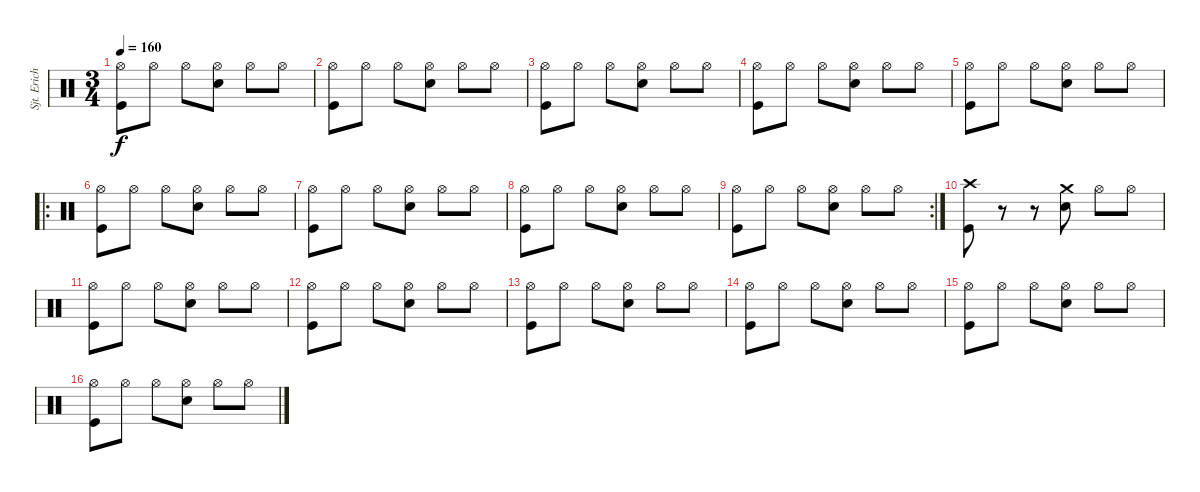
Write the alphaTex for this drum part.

\track ("Sjt. Erichsen" "Sjt. Erich") {instrument percussion}
\staff {score}
\articulation defaults
\ts (3 4)
\tempo 160
\clef neutral
\ks c
("Hi-Hat (open)" "Kick (hit)").8{dy f} "Hi-Hat (open)".8 "Hi-Hat (open)".8 ("Hi-Hat (open)" "Electric Snare (hit)").8 "Hi-Hat (open)".8 "Hi-Hat (open)".8 |
("Hi-Hat (open)" "Kick (hit)").8 "Hi-Hat (open)".8 "Hi-Hat (open)".8 ("Hi-Hat (open)" "Electric Snare (hit)").8 "Hi-Hat (open)".8 "Hi-Hat (open)".8 |
("Hi-Hat (open)" "Kick (hit)").8 "Hi-Hat (open)".8 "Hi-Hat (open)".8 ("Hi-Hat (open)" "Electric Snare (hit)").8 "Hi-Hat (open)".8 "Hi-Hat (open)".8 |
("Hi-Hat (open)" "Kick (hit)").8 "Hi-Hat (open)".8 "Hi-Hat (open)".8 ("Hi-Hat (open)" "Electric Snare (hit)").8 "Hi-Hat (open)".8 "Hi-Hat (open)".8 |
("Hi-Hat (open)" "Kick (hit)").8 "Hi-Hat (open)".8 "Hi-Hat (open)".8 ("Hi-Hat (open)" "Electric Snare (hit)").8 "Hi-Hat (open)".8 "Hi-Hat (open)".8 |
\ro
("Hi-Hat (open)" "Kick (hit)").8 "Hi-Hat (open)".8 "Hi-Hat (open)".8 ("Hi-Hat (open)" "Electric Snare (hit)").8 "Hi-Hat (open)".8 "Hi-Hat (open)".8 |
("Hi-Hat (open)" "Kick (hit)").8 "Hi-Hat (open)".8 "Hi-Hat (open)".8 ("Hi-Hat (open)" "Electric Snare (hit)").8 "Hi-Hat (open)".8 "Hi-Hat (open)".8 |
("Hi-Hat (open)" "Kick (hit)").8 "Hi-Hat (open)".8 "Hi-Hat (open)".8 ("Hi-Hat (open)" "Electric Snare (hit)").8 "Hi-Hat (open)".8 "Hi-Hat (open)".8 |
\rc 2
("Hi-Hat (open)" "Kick (hit)").8 "Hi-Hat (open)".8 "Hi-Hat (open)".8 ("Hi-Hat (open)" "Electric Snare (hit)").8 "Hi-Hat (open)".8 "Hi-Hat (open)".8 |
("Crash high (hit)" "Kick (hit)").8 r.8 r.8 ("Crash medium (hit)" "Electric Snare (hit)").8 "Hi-Hat (open)".8 "Hi-Hat (open)".8 |
("Hi-Hat (open)" "Kick (hit)").8 "Hi-Hat (open)".8 "Hi-Hat (open)".8 ("Hi-Hat (open)" "Electric Snare (hit)").8 "Hi-Hat (open)".8 "Hi-Hat (open)".8 |
("Hi-Hat (open)" "Kick (hit)").8 "Hi-Hat (open)".8 "Hi-Hat (open)".8 ("Hi-Hat (open)" "Electric Snare (hit)").8 "Hi-Hat (open)".8 "Hi-Hat (open)".8 |
("Hi-Hat (open)" "Kick (hit)").8 "Hi-Hat (open)".8 "Hi-Hat (open)".8 ("Hi-Hat (open)" "Electric Snare (hit)").8 "Hi-Hat (open)".8 "Hi-Hat (open)".8 |
("Hi-Hat (open)" "Kick (hit)").8 "Hi-Hat (open)".8 "Hi-Hat (open)".8 ("Hi-Hat (open)" "Electric Snare (hit)").8 "Hi-Hat (open)".8 "Hi-Hat (open)".8 |
("Hi-Hat (open)" "Kick (hit)").8 "Hi-Hat (open)".8 "Hi-Hat (open)".8 ("Hi-Hat (open)" "Electric Snare (hit)").8 "Hi-Hat (open)".8 "Hi-Hat (open)".8 |
("Hi-Hat (open)" "Kick (hit)").8 "Hi-Hat (open)".8 "Hi-Hat (open)".8 ("Hi-Hat (open)" "Electric Snare (hit)").8 "Hi-Hat (open)".8 "Hi-Hat (open)".8
